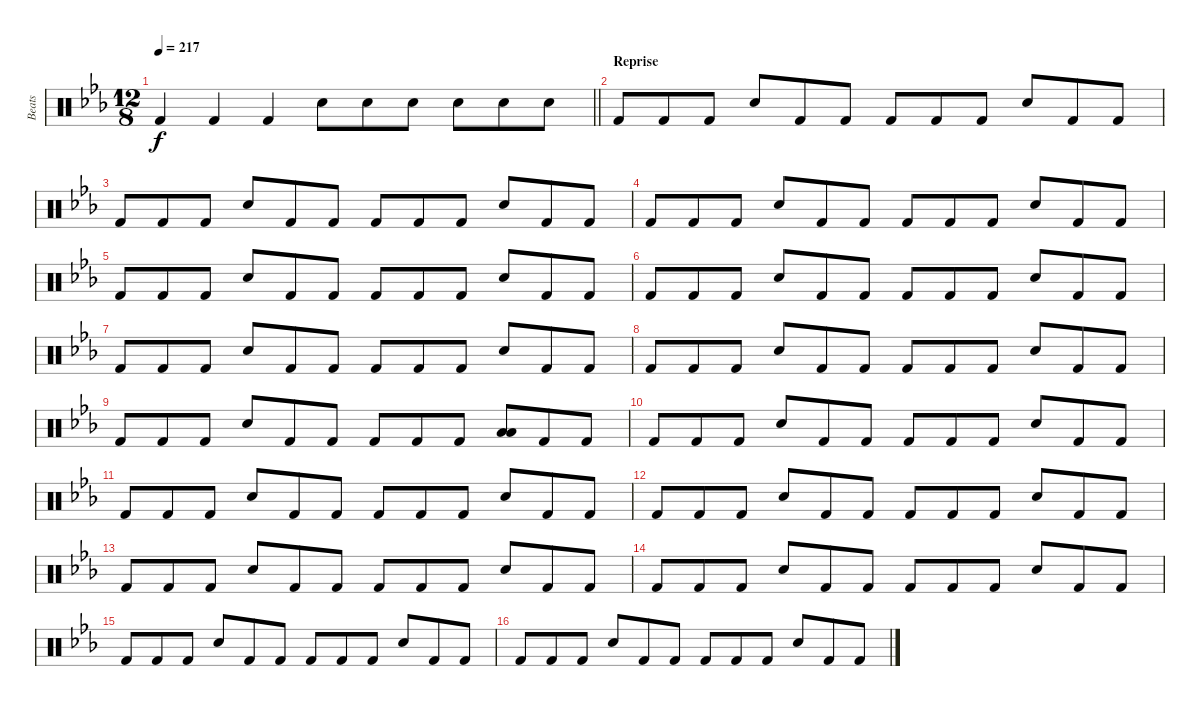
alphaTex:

\track ("Beats" "Beats") {instrument percussion}
\staff {score}
\articulation defaults
\ts (12 8)
\tempo 217
\clef neutral
\barLineRight lightlight
\ks eb "Kick (hit) 2".4{dy f} "Kick (hit) 2".4 "Kick (hit) 2".4 "Snare (hit) 2".8 "Snare (hit) 2".8 "Snare (hit) 2".8 "Snare (hit) 2".8 "Snare (hit) 2".8 "Snare (hit) 2".8
|
\section ("" "Reprise")
"Kick (hit) 2".8 "Kick (hit) 2".8 "Kick (hit) 2".8 "Snare (hit) 2".8 "Kick (hit) 2".8 "Kick (hit) 2".8 "Kick (hit) 2".8 "Kick (hit) 2".8 "Kick (hit) 2".8 "Snare (hit) 2".8 "Kick (hit) 2".8 "Kick (hit) 2".8 |
"Kick (hit) 2".8 "Kick (hit) 2".8 "Kick (hit) 2".8 "Snare (hit) 2".8 "Kick (hit) 2".8 "Kick (hit) 2".8 "Kick (hit) 2".8 "Kick (hit) 2".8 "Kick (hit) 2".8 "Snare (hit) 2".8 "Kick (hit) 2".8 "Kick (hit) 2".8 |
"Kick (hit) 2".8 "Kick (hit) 2".8 "Kick (hit) 2".8 "Snare (hit) 2".8 "Kick (hit) 2".8 "Kick (hit) 2".8 "Kick (hit) 2".8 "Kick (hit) 2".8 "Kick (hit) 2".8 "Snare (hit) 2".8 "Kick (hit) 2".8 "Kick (hit) 2".8 |
"Kick (hit) 2".8 "Kick (hit) 2".8 "Kick (hit) 2".8 "Snare (hit) 2".8 "Kick (hit) 2".8 "Kick (hit) 2".8 "Kick (hit) 2".8 "Kick (hit) 2".8 "Kick (hit) 2".8 "Snare (hit) 2".8 "Kick (hit) 2".8 "Kick (hit) 2".8 |
"Kick (hit) 2".8 "Kick (hit) 2".8 "Kick (hit) 2".8 "Snare (hit) 2".8 "Kick (hit) 2".8 "Kick (hit) 2".8 "Kick (hit) 2".8 "Kick (hit) 2".8 "Kick (hit) 2".8 "Snare (hit) 2".8 "Kick (hit) 2".8 "Kick (hit) 2".8 |
"Kick (hit) 2".8 "Kick (hit) 2".8 "Kick (hit) 2".8 "Snare (hit) 2".8 "Kick (hit) 2".8 "Kick (hit) 2".8 "Kick (hit) 2".8 "Kick (hit) 2".8 "Kick (hit) 2".8 "Snare (hit) 2".8 "Kick (hit) 2".8 "Kick (hit) 2".8 |
"Kick (hit) 2".8 "Kick (hit) 2".8 "Kick (hit) 2".8 "Snare (hit) 2".8 "Kick (hit) 2".8 "Kick (hit) 2".8 "Kick (hit) 2".8 "Kick (hit) 2".8 "Kick (hit) 2".8 "Snare (hit) 2".8 "Kick (hit) 2".8 "Kick (hit) 2".8 |
"Kick (hit) 2".8 "Kick (hit) 2".8 "Kick (hit) 2".8 "Snare (hit) 2".8 "Kick (hit) 2".8 "Kick (hit) 2".8 "Kick (hit) 2".8 "Kick (hit) 2".8 "Kick (hit) 2".8 ("Low Tom (hit)" "Low Tom (hit)").8 "Kick (hit) 2".8 "Kick (hit) 2".8 |
"Kick (hit) 2".8 "Kick (hit) 2".8 "Kick (hit) 2".8 "Snare (hit) 2".8 "Kick (hit) 2".8 "Kick (hit) 2".8 "Kick (hit) 2".8 "Kick (hit) 2".8 "Kick (hit) 2".8 "Snare (hit) 2".8 "Kick (hit) 2".8 "Kick (hit) 2".8 |
"Kick (hit) 2".8 "Kick (hit) 2".8 "Kick (hit) 2".8 "Snare (hit) 2".8 "Kick (hit) 2".8 "Kick (hit) 2".8 "Kick (hit) 2".8 "Kick (hit) 2".8 "Kick (hit) 2".8 "Snare (hit) 2".8 "Kick (hit) 2".8 "Kick (hit) 2".8 |
"Kick (hit) 2".8 "Kick (hit) 2".8 "Kick (hit) 2".8 "Snare (hit) 2".8 "Kick (hit) 2".8 "Kick (hit) 2".8 "Kick (hit) 2".8 "Kick (hit) 2".8 "Kick (hit) 2".8 "Snare (hit) 2".8 "Kick (hit) 2".8 "Kick (hit) 2".8 |
"Kick (hit) 2".8 "Kick (hit) 2".8 "Kick (hit) 2".8 "Snare (hit) 2".8 "Kick (hit) 2".8 "Kick (hit) 2".8 "Kick (hit) 2".8 "Kick (hit) 2".8 "Kick (hit) 2".8 "Snare (hit) 2".8 "Kick (hit) 2".8 "Kick (hit) 2".8 |
"Kick (hit) 2".8 "Kick (hit) 2".8 "Kick (hit) 2".8 "Snare (hit) 2".8 "Kick (hit) 2".8 "Kick (hit) 2".8 "Kick (hit) 2".8 "Kick (hit) 2".8 "Kick (hit) 2".8 "Snare (hit) 2".8 "Kick (hit) 2".8 "Kick (hit) 2".8 |
"Kick (hit) 2".8 "Kick (hit) 2".8 "Kick (hit) 2".8 "Snare (hit) 2".8 "Kick (hit) 2".8 "Kick (hit) 2".8 "Kick (hit) 2".8 "Kick (hit) 2".8 "Kick (hit) 2".8 "Snare (hit) 2".8 "Kick (hit) 2".8 "Kick (hit) 2".8 |
"Kick (hit) 2".8 "Kick (hit) 2".8 "Kick (hit) 2".8 "Snare (hit) 2".8 "Kick (hit) 2".8 "Kick (hit) 2".8 "Kick (hit) 2".8 "Kick (hit) 2".8 "Kick (hit) 2".8 "Snare (hit) 2".8 "Kick (hit) 2".8 "Kick (hit) 2".8
